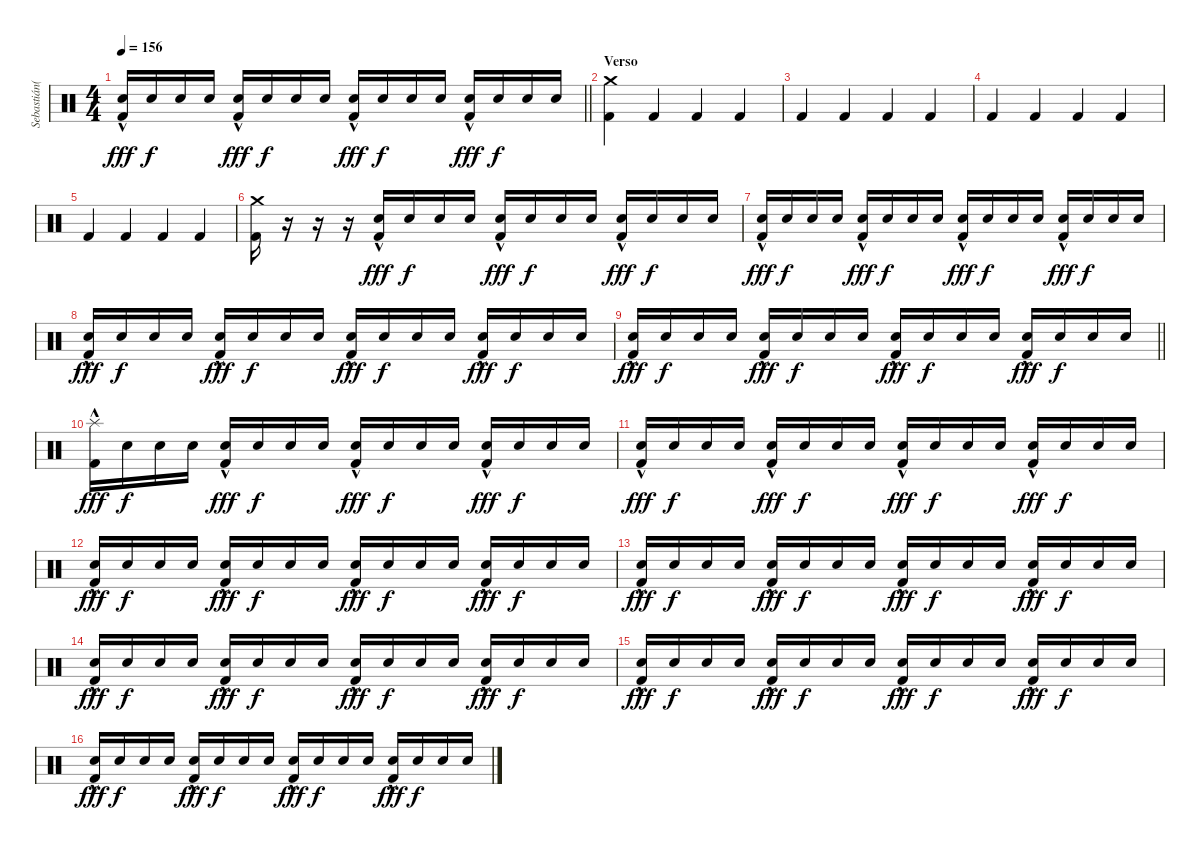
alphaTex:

\track ("Sebastián(Percusión)" "Sebastián(") {instrument percussion}
\staff {score}
\articulation defaults
\ts (4 4)
\tempo 156
\clef neutral
\barLineRight lightlight
\ks c
("Electric Snare (hit)"{hac} "Kick (hit) 2").16{dy fff} "Electric Snare (hit)".16{dy f} "Electric Snare (hit)".16 "Electric Snare (hit)".16 ("Electric Snare (hit)"{hac} "Kick (hit) 2").16{dy fff} "Electric Snare (hit)".16{dy f} "Electric Snare (hit)".16 "Electric Snare (hit)".16 ("Electric Snare (hit)"{hac} "Kick (hit) 2").16{dy fff} "Electric Snare (hit)".16{dy f} "Electric Snare (hit)".16 "Electric Snare (hit)".16 ("Electric Snare (hit)"{hac} "Kick (hit) 2").16{dy fff} "Electric Snare (hit)".16{dy f} "Electric Snare (hit)".16 "Electric Snare (hit)".16 |
\section ("" "Verso")
("Crash medium (hit)" "Kick (hit) 2").4 "Kick (hit) 2".4 "Kick (hit) 2".4 "Kick (hit) 2".4 |
"Kick (hit) 2".4 "Kick (hit) 2".4 "Kick (hit) 2".4 "Kick (hit) 2".4 |
"Kick (hit) 2".4 "Kick (hit) 2".4 "Kick (hit) 2".4 "Kick (hit) 2".4 |
"Kick (hit) 2".4 "Kick (hit) 2".4 "Kick (hit) 2".4 "Kick (hit) 2".4 |
("Crash medium (hit)" "Kick (hit) 2").16 r.16 r.16 r.16 ("Electric Snare (hit)"{hac} "Kick (hit) 2").16{dy fff} "Electric Snare (hit)".16{dy f} "Electric Snare (hit)".16 "Electric Snare (hit)".16 ("Electric Snare (hit)"{hac} "Kick (hit) 2").16{dy fff} "Electric Snare (hit)".16{dy f} "Electric Snare (hit)".16 "Electric Snare (hit)".16 ("Electric Snare (hit)"{hac} "Kick (hit) 2").16{dy fff} "Electric Snare (hit)".16{dy f} "Electric Snare (hit)".16 "Electric Snare (hit)".16 |
("Electric Snare (hit)"{hac} "Kick (hit) 2").16{dy fff} "Electric Snare (hit)".16{dy f} "Electric Snare (hit)".16 "Electric Snare (hit)".16 ("Electric Snare (hit)"{hac} "Kick (hit) 2").16{dy fff} "Electric Snare (hit)".16{dy f} "Electric Snare (hit)".16 "Electric Snare (hit)".16 ("Electric Snare (hit)"{hac} "Kick (hit) 2").16{dy fff} "Electric Snare (hit)".16{dy f} "Electric Snare (hit)".16 "Electric Snare (hit)".16 ("Electric Snare (hit)"{hac} "Kick (hit) 2").16{dy fff} "Electric Snare (hit)".16{dy f} "Electric Snare (hit)".16 "Electric Snare (hit)".16 |
("Electric Snare (hit)"{hac} "Kick (hit) 2").16{dy fff} "Electric Snare (hit)".16{dy f} "Electric Snare (hit)".16 "Electric Snare (hit)".16 ("Electric Snare (hit)"{hac} "Kick (hit) 2").16{dy fff} "Electric Snare (hit)".16{dy f} "Electric Snare (hit)".16 "Electric Snare (hit)".16 ("Electric Snare (hit)"{hac} "Kick (hit) 2").16{dy fff} "Electric Snare (hit)".16{dy f} "Electric Snare (hit)".16 "Electric Snare (hit)".16 ("Electric Snare (hit)"{hac} "Kick (hit) 2").16{dy fff} "Electric Snare (hit)".16{dy f} "Electric Snare (hit)".16 "Electric Snare (hit)".16 |
\barLineRight lightlight
("Electric Snare (hit)"{hac} "Kick (hit) 2").16{dy fff} "Electric Snare (hit)".16{dy f} "Electric Snare (hit)".16 "Electric Snare (hit)".16 ("Electric Snare (hit)"{hac} "Kick (hit) 2").16{dy fff} "Electric Snare (hit)".16{dy f} "Electric Snare (hit)".16 "Electric Snare (hit)".16 ("Electric Snare (hit)"{hac} "Kick (hit) 2").16{dy fff} "Electric Snare (hit)".16{dy f} "Electric Snare (hit)".16 "Electric Snare (hit)".16 ("Electric Snare (hit)"{hac} "Kick (hit) 2").16{dy fff} "Electric Snare (hit)".16{dy f} "Electric Snare (hit)".16 "Electric Snare (hit)".16 |
\section ("" "")
("Splash (hit)"{hac} "Kick (hit) 2").16{dy fff} "Electric Snare (hit)".16{dy f} "Electric Snare (hit)".16 "Electric Snare (hit)".16 ("Electric Snare (hit)"{hac} "Kick (hit) 2").16{dy fff} "Electric Snare (hit)".16{dy f} "Electric Snare (hit)".16 "Electric Snare (hit)".16 ("Electric Snare (hit)"{hac} "Kick (hit) 2").16{dy fff} "Electric Snare (hit)".16{dy f} "Electric Snare (hit)".16 "Electric Snare (hit)".16 ("Electric Snare (hit)"{hac} "Kick (hit) 2").16{dy fff} "Electric Snare (hit)".16{dy f} "Electric Snare (hit)".16 "Electric Snare (hit)".16 |
("Electric Snare (hit)"{hac} "Kick (hit) 2").16{dy fff} "Electric Snare (hit)".16{dy f} "Electric Snare (hit)".16 "Electric Snare (hit)".16 ("Electric Snare (hit)"{hac} "Kick (hit) 2").16{dy fff} "Electric Snare (hit)".16{dy f} "Electric Snare (hit)".16 "Electric Snare (hit)".16 ("Electric Snare (hit)"{hac} "Kick (hit) 2").16{dy fff} "Electric Snare (hit)".16{dy f} "Electric Snare (hit)".16 "Electric Snare (hit)".16 ("Electric Snare (hit)"{hac} "Kick (hit) 2").16{dy fff} "Electric Snare (hit)".16{dy f} "Electric Snare (hit)".16 "Electric Snare (hit)".16 |
("Electric Snare (hit)"{hac} "Kick (hit) 2").16{dy fff} "Electric Snare (hit)".16{dy f} "Electric Snare (hit)".16 "Electric Snare (hit)".16 ("Electric Snare (hit)"{hac} "Kick (hit) 2").16{dy fff} "Electric Snare (hit)".16{dy f} "Electric Snare (hit)".16 "Electric Snare (hit)".16 ("Electric Snare (hit)"{hac} "Kick (hit) 2").16{dy fff} "Electric Snare (hit)".16{dy f} "Electric Snare (hit)".16 "Electric Snare (hit)".16 ("Electric Snare (hit)"{hac} "Kick (hit) 2").16{dy fff} "Electric Snare (hit)".16{dy f} "Electric Snare (hit)".16 "Electric Snare (hit)".16 |
("Electric Snare (hit)"{hac} "Kick (hit) 2").16{dy fff} "Electric Snare (hit)".16{dy f} "Electric Snare (hit)".16 "Electric Snare (hit)".16 ("Electric Snare (hit)"{hac} "Kick (hit) 2").16{dy fff} "Electric Snare (hit)".16{dy f} "Electric Snare (hit)".16 "Electric Snare (hit)".16 ("Electric Snare (hit)"{hac} "Kick (hit) 2").16{dy fff} "Electric Snare (hit)".16{dy f} "Electric Snare (hit)".16 "Electric Snare (hit)".16 ("Electric Snare (hit)"{hac} "Kick (hit) 2").16{dy fff} "Electric Snare (hit)".16{dy f} "Electric Snare (hit)".16 "Electric Snare (hit)".16 |
("Electric Snare (hit)"{hac} "Kick (hit) 2").16{dy fff} "Electric Snare (hit)".16{dy f} "Electric Snare (hit)".16 "Electric Snare (hit)".16 ("Electric Snare (hit)"{hac} "Kick (hit) 2").16{dy fff} "Electric Snare (hit)".16{dy f} "Electric Snare (hit)".16 "Electric Snare (hit)".16 ("Electric Snare (hit)"{hac} "Kick (hit) 2").16{dy fff} "Electric Snare (hit)".16{dy f} "Electric Snare (hit)".16 "Electric Snare (hit)".16 ("Electric Snare (hit)"{hac} "Kick (hit) 2").16{dy fff} "Electric Snare (hit)".16{dy f} "Electric Snare (hit)".16 "Electric Snare (hit)".16 |
("Electric Snare (hit)"{hac} "Kick (hit) 2").16{dy fff} "Electric Snare (hit)".16{dy f} "Electric Snare (hit)".16 "Electric Snare (hit)".16 ("Electric Snare (hit)"{hac} "Kick (hit) 2").16{dy fff} "Electric Snare (hit)".16{dy f} "Electric Snare (hit)".16 "Electric Snare (hit)".16 ("Electric Snare (hit)"{hac} "Kick (hit) 2").16{dy fff} "Electric Snare (hit)".16{dy f} "Electric Snare (hit)".16 "Electric Snare (hit)".16 ("Electric Snare (hit)"{hac} "Kick (hit) 2").16{dy fff} "Electric Snare (hit)".16{dy f} "Electric Snare (hit)".16 "Electric Snare (hit)".16 |
("Electric Snare (hit)"{hac} "Kick (hit) 2").16{dy fff} "Electric Snare (hit)".16{dy f} "Electric Snare (hit)".16 "Electric Snare (hit)".16 ("Electric Snare (hit)"{hac} "Kick (hit) 2").16{dy fff} "Electric Snare (hit)".16{dy f} "Electric Snare (hit)".16 "Electric Snare (hit)".16 ("Electric Snare (hit)"{hac} "Kick (hit) 2").16{dy fff} "Electric Snare (hit)".16{dy f} "Electric Snare (hit)".16 "Electric Snare (hit)".16 ("Electric Snare (hit)"{hac} "Kick (hit) 2").16{dy fff} "Electric Snare (hit)".16{dy f} "Electric Snare (hit)".16 "Electric Snare (hit)".16
